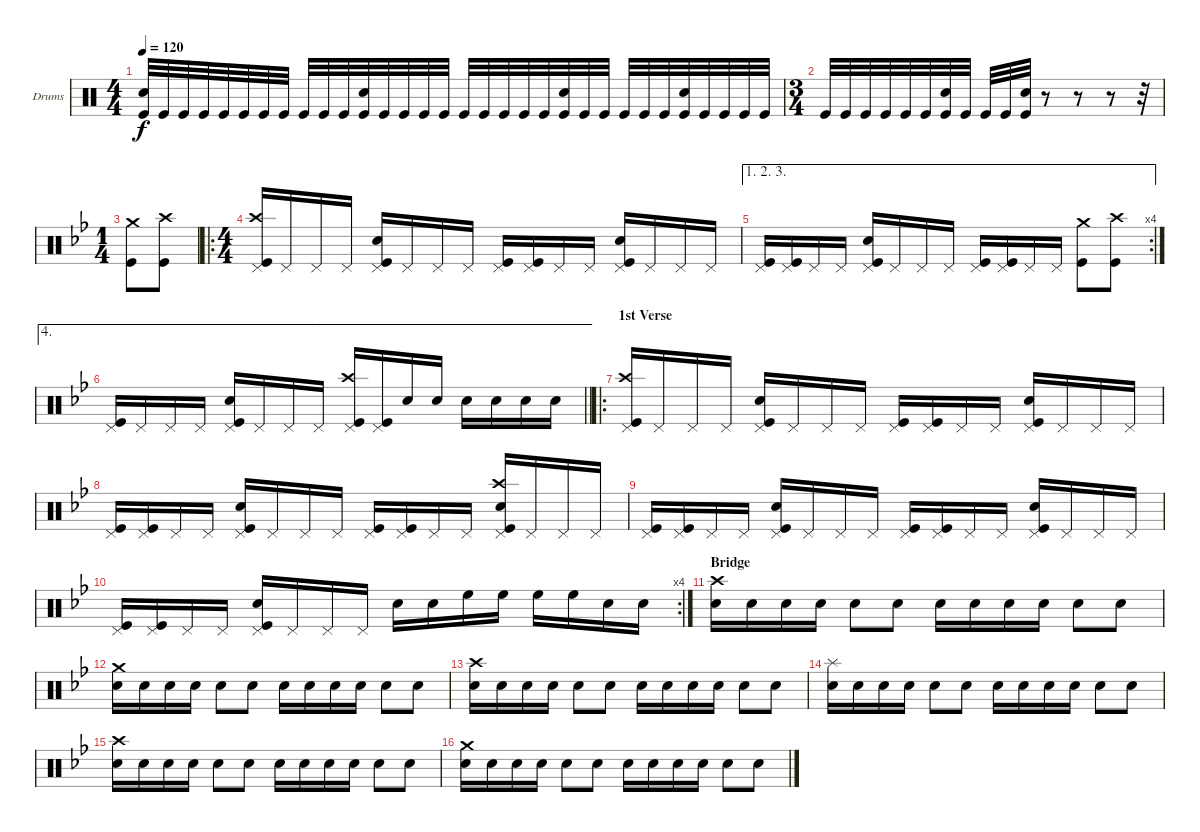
\bracketExtendMode groupsimilarinstruments
\firstSystemTrackNameOrientation horizontal
\otherSystemsTrackNameOrientation horizontal
\track ("Drumkit" "Drums") {instrument percussion}
\staff {score}
\articulation defaults
\ts (4 4)
\tempo 120
\clef neutral
\ks c
("Snare (hit) 2" "Kick (hit)").32{dy f} "Kick (hit)".32 "Kick (hit)".32 "Kick (hit)".32 "Kick (hit)".32 "Kick (hit)".32 "Kick (hit)".32 "Kick (hit)".32 "Kick (hit)".32 "Kick (hit)".32 "Kick (hit)".32 ("Snare (hit) 2" "Kick (hit)").32 "Kick (hit)".32 "Kick (hit)".32 "Kick (hit)".32 "Kick (hit)".32 "Kick (hit)".32 "Kick (hit)".32 "Kick (hit)".32 "Kick (hit)".32 "Kick (hit)".32 ("Snare (hit) 2" "Kick (hit)").32 "Kick (hit)".32 "Kick (hit)".32 "Kick (hit)".32 "Kick (hit)".32 "Kick (hit)".32 ("Snare (hit) 2" "Kick (hit)").32 "Kick (hit)".32 "Kick (hit)".32 "Kick (hit)".32 "Kick (hit)".32 |
\ts (3 4)
"Kick (hit)".32 "Kick (hit)".32 "Kick (hit)".32 "Kick (hit)".32 "Kick (hit)".32 "Kick (hit)".32 ("Snare (hit) 2" "Kick (hit)").32 "Kick (hit)".32 "Kick (hit)".32 "Kick (hit)".32 ("Snare (hit) 2" "Kick (hit)").32 r.8 r.8 r.8 r.32 |
\ts (1 4)
\ks bb
("Crash medium (hit)" "Kick (hit)").8 ("Crash high (hit)" "Kick (hit)").8 |
\ro
\ts (4 4)
("Crash high (hit)" "Pedal Hi-Hat (hit)" "Kick (hit)").16 "Pedal Hi-Hat (hit)".16 "Pedal Hi-Hat (hit)".16 "Pedal Hi-Hat (hit)".16 ("Snare (hit) 2" "Pedal Hi-Hat (hit)" "Kick (hit)").16 "Pedal Hi-Hat (hit)".16 "Pedal Hi-Hat (hit)".16 "Pedal Hi-Hat (hit)".16 ("Pedal Hi-Hat (hit)" "Kick (hit)").16 ("Pedal Hi-Hat (hit)" "Kick (hit)").16 "Pedal Hi-Hat (hit)".16 "Pedal Hi-Hat (hit)".16 ("Snare (hit) 2" "Pedal Hi-Hat (hit)" "Kick (hit)").16 "Pedal Hi-Hat (hit)".16 "Pedal Hi-Hat (hit)".16 "Pedal Hi-Hat (hit)".16 |
\ae (1 2 3)
\rc 4
("Pedal Hi-Hat (hit)" "Kick (hit)").16 ("Pedal Hi-Hat (hit)" "Kick (hit)").16 "Pedal Hi-Hat (hit)".16 "Pedal Hi-Hat (hit)".16 ("Snare (hit) 2" "Pedal Hi-Hat (hit)" "Kick (hit)").16 "Pedal Hi-Hat (hit)".16 "Pedal Hi-Hat (hit)".16 "Pedal Hi-Hat (hit)".16 ("Pedal Hi-Hat (hit)" "Kick (hit)").16 ("Pedal Hi-Hat (hit)" "Kick (hit)").16 "Pedal Hi-Hat (hit)".16 "Pedal Hi-Hat (hit)".16 ("Crash medium (hit)" "Kick (hit)").8 ("Crash high (hit)" "Kick (hit)").8 |
\ae 4
\barLineRight lightlight
("Pedal Hi-Hat (hit)" "Kick (hit)").16 "Pedal Hi-Hat (hit)".16 "Pedal Hi-Hat (hit)".16 "Pedal Hi-Hat (hit)".16 ("Snare (hit) 2" "Pedal Hi-Hat (hit)" "Kick (hit)").16 "Pedal Hi-Hat (hit)".16 "Pedal Hi-Hat (hit)".16 "Pedal Hi-Hat (hit)".16 ("Crash high (hit)" "Pedal Hi-Hat (hit)" "Kick (hit)").16 ("Pedal Hi-Hat (hit)" "Kick (hit)").16 "Snare (hit) 2".16 "Snare (hit) 2".16 "Snare (hit) 2".16 "Snare (hit) 2".16 "Snare (hit) 2".16 "Snare (hit) 2".16 |
\ro
\section ("" "1st Verse")
("Crash high (hit)" "Pedal Hi-Hat (hit)" "Kick (hit)").16 "Pedal Hi-Hat (hit)".16 "Pedal Hi-Hat (hit)".16 "Pedal Hi-Hat (hit)".16 ("Snare (hit) 2" "Pedal Hi-Hat (hit)" "Kick (hit)").16 "Pedal Hi-Hat (hit)".16 "Pedal Hi-Hat (hit)".16 "Pedal Hi-Hat (hit)".16 ("Pedal Hi-Hat (hit)" "Kick (hit)").16 ("Pedal Hi-Hat (hit)" "Kick (hit)").16 "Pedal Hi-Hat (hit)".16 "Pedal Hi-Hat (hit)".16 ("Snare (hit) 2" "Pedal Hi-Hat (hit)" "Kick (hit)").16 "Pedal Hi-Hat (hit)".16 "Pedal Hi-Hat (hit)".16 "Pedal Hi-Hat (hit)".16 |
("Pedal Hi-Hat (hit)" "Kick (hit)").16 ("Pedal Hi-Hat (hit)" "Kick (hit)").16 "Pedal Hi-Hat (hit)".16 "Pedal Hi-Hat (hit)".16 ("Snare (hit) 2" "Pedal Hi-Hat (hit)" "Kick (hit)").16 "Pedal Hi-Hat (hit)".16 "Pedal Hi-Hat (hit)".16 "Pedal Hi-Hat (hit)".16 ("Pedal Hi-Hat (hit)" "Kick (hit)").16 ("Pedal Hi-Hat (hit)" "Kick (hit)").16 "Pedal Hi-Hat (hit)".16 "Pedal Hi-Hat (hit)".16 ("Crash high (hit)" "Snare (hit) 2" "Pedal Hi-Hat (hit)" "Kick (hit)").16 "Pedal Hi-Hat (hit)".16 "Pedal Hi-Hat (hit)".16 "Pedal Hi-Hat (hit)".16 |
("Pedal Hi-Hat (hit)" "Kick (hit)").16 ("Pedal Hi-Hat (hit)" "Kick (hit)").16 "Pedal Hi-Hat (hit)".16 "Pedal Hi-Hat (hit)".16 ("Snare (hit) 2" "Pedal Hi-Hat (hit)" "Kick (hit)").16 "Pedal Hi-Hat (hit)".16 "Pedal Hi-Hat (hit)".16 "Pedal Hi-Hat (hit)".16 ("Pedal Hi-Hat (hit)" "Kick (hit)").16 ("Pedal Hi-Hat (hit)" "Kick (hit)").16 "Pedal Hi-Hat (hit)".16 "Pedal Hi-Hat (hit)".16 ("Snare (hit) 2" "Pedal Hi-Hat (hit)" "Kick (hit)").16 "Pedal Hi-Hat (hit)".16 "Pedal Hi-Hat (hit)".16 "Pedal Hi-Hat (hit)".16 |
\rc 4
("Pedal Hi-Hat (hit)" "Kick (hit)").16 ("Pedal Hi-Hat (hit)" "Kick (hit)").16 "Pedal Hi-Hat (hit)".16 "Pedal Hi-Hat (hit)".16 ("Snare (hit) 2" "Pedal Hi-Hat (hit)" "Kick (hit)").16 "Pedal Hi-Hat (hit)".16 "Pedal Hi-Hat (hit)".16 "Pedal Hi-Hat (hit)".16 "Snare (hit) 2".16 "Snare (hit) 2".16 "High Floor Tom (hit)".16 "High Floor Tom (hit)".16 "High Floor Tom (hit)".16 "High Floor Tom (hit)".16 "Snare (hit) 2".16 "Snare (hit) 2".16 |
\section ("" "Bridge")
("Crash high (hit)" "Snare (hit) 2").16 "Snare (hit) 2".16 "Snare (hit) 2".16 "Snare (hit) 2".16 "Snare (hit) 2".8 "Snare (hit) 2".8 "Snare (hit) 2".16 "Snare (hit) 2".16 "Snare (hit) 2".16 "Snare (hit) 2".16 "Snare (hit) 2".8 "Snare (hit) 2".8 |
("Crash medium (hit)" "Snare (hit) 2").16 "Snare (hit) 2".16 "Snare (hit) 2".16 "Snare (hit) 2".16 "Snare (hit) 2".8 "Snare (hit) 2".8 "Snare (hit) 2".16 "Snare (hit) 2".16 "Snare (hit) 2".16 "Snare (hit) 2".16 "Snare (hit) 2".8 "Snare (hit) 2".8 |
("Crash high (hit)" "Snare (hit) 2").16 "Snare (hit) 2".16 "Snare (hit) 2".16 "Snare (hit) 2".16 "Snare (hit) 2".8 "Snare (hit) 2".8 "Snare (hit) 2".16 "Snare (hit) 2".16 "Snare (hit) 2".16 "Snare (hit) 2".16 "Snare (hit) 2".8 "Snare (hit) 2".8 |
("Splash (hit)" "Snare (hit) 2").16 "Snare (hit) 2".16 "Snare (hit) 2".16 "Snare (hit) 2".16 "Snare (hit) 2".8 "Snare (hit) 2".8 "Snare (hit) 2".16 "Snare (hit) 2".16 "Snare (hit) 2".16 "Snare (hit) 2".16 "Snare (hit) 2".8 "Snare (hit) 2".8 |
("Crash high (hit)" "Snare (hit) 2").16 "Snare (hit) 2".16 "Snare (hit) 2".16 "Snare (hit) 2".16 "Snare (hit) 2".8 "Snare (hit) 2".8 "Snare (hit) 2".16 "Snare (hit) 2".16 "Snare (hit) 2".16 "Snare (hit) 2".16 "Snare (hit) 2".8 "Snare (hit) 2".8 |
("Crash medium (hit)" "Snare (hit) 2").16 "Snare (hit) 2".16 "Snare (hit) 2".16 "Snare (hit) 2".16 "Snare (hit) 2".8 "Snare (hit) 2".8 "Snare (hit) 2".16 "Snare (hit) 2".16 "Snare (hit) 2".16 "Snare (hit) 2".16 "Snare (hit) 2".8 "Snare (hit) 2".8
